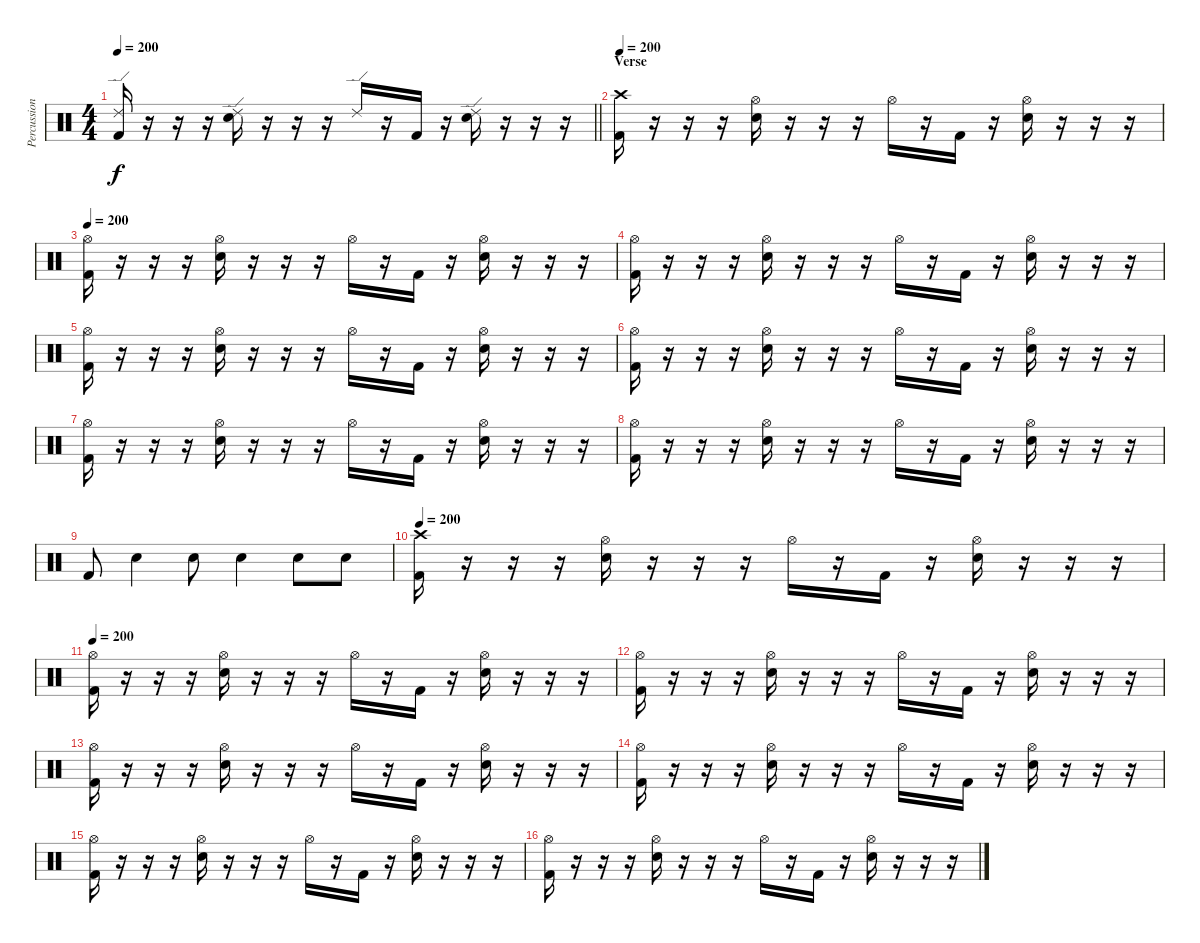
\track ("Percussion" "Percussion") {instrument percussion}
\staff {score}
\articulation defaults
\ts (4 4)
\tempo 200
\clef neutral
\barLineRight lightlight
\ks c
("Ride (edge) 2" "Kick (hit) 2").16{dy f} r.16 r.16 r.16 ("Ride (edge) 2" "Electric Snare (hit)").16 r.16 r.16 r.16 "Ride (edge) 2".16 r.16 "Kick (hit) 2".16 r.16 ("Ride (edge) 2" "Electric Snare (hit)").16 r.16 r.16 r.16 |
\section ("" "Verse")
\tempo 200
("Crash high (hit)" "Kick (hit) 2").16 r.16 r.16 r.16 ("Hi-Hat (open)" "Electric Snare (hit)").16 r.16 r.16 r.16 "Hi-Hat (open)".16 r.16 "Kick (hit) 2".16 r.16 ("Hi-Hat (open)" "Electric Snare (hit)").16 r.16 r.16 r.16 |
\tempo 200
("Hi-Hat (open)" "Kick (hit) 2").16 r.16 r.16 r.16 ("Hi-Hat (open)" "Electric Snare (hit)").16 r.16 r.16 r.16 "Hi-Hat (open)".16 r.16 "Kick (hit) 2".16 r.16 ("Hi-Hat (open)" "Electric Snare (hit)").16 r.16 r.16 r.16 |
("Hi-Hat (open)" "Kick (hit) 2").16 r.16 r.16 r.16 ("Hi-Hat (open)" "Electric Snare (hit)").16 r.16 r.16 r.16 "Hi-Hat (open)".16 r.16 "Kick (hit) 2".16 r.16 ("Hi-Hat (open)" "Electric Snare (hit)").16 r.16 r.16 r.16 |
("Hi-Hat (open)" "Kick (hit) 2").16 r.16 r.16 r.16 ("Hi-Hat (open)" "Electric Snare (hit)").16 r.16 r.16 r.16 "Hi-Hat (open)".16 r.16 "Kick (hit) 2".16 r.16 ("Hi-Hat (open)" "Electric Snare (hit)").16 r.16 r.16 r.16 |
("Hi-Hat (open)" "Kick (hit) 2").16 r.16 r.16 r.16 ("Hi-Hat (open)" "Electric Snare (hit)").16 r.16 r.16 r.16 "Hi-Hat (open)".16 r.16 "Kick (hit) 2".16 r.16 ("Hi-Hat (open)" "Electric Snare (hit)").16 r.16 r.16 r.16 |
("Hi-Hat (open)" "Kick (hit) 2").16 r.16 r.16 r.16 ("Hi-Hat (open)" "Electric Snare (hit)").16 r.16 r.16 r.16 "Hi-Hat (open)".16 r.16 "Kick (hit) 2".16 r.16 ("Hi-Hat (open)" "Electric Snare (hit)").16 r.16 r.16 r.16 |
("Hi-Hat (open)" "Kick (hit) 2").16 r.16 r.16 r.16 ("Hi-Hat (open)" "Electric Snare (hit)").16 r.16 r.16 r.16 "Hi-Hat (open)".16 r.16 "Kick (hit) 2".16 r.16 ("Hi-Hat (open)" "Electric Snare (hit)").16 r.16 r.16 r.16 |
"Kick (hit) 2".8 "Electric Snare (hit)".4 "Electric Snare (hit)".8 "Electric Snare (hit)".4 "Electric Snare (hit)".8 "Electric Snare (hit)".8 |
\tempo 200
("Crash high (hit)" "Kick (hit) 2").16 r.16 r.16 r.16 ("Hi-Hat (open)" "Electric Snare (hit)").16 r.16 r.16 r.16 "Hi-Hat (open)".16 r.16 "Kick (hit) 2".16 r.16 ("Hi-Hat (open)" "Electric Snare (hit)").16 r.16 r.16 r.16 |
\tempo 200
("Hi-Hat (open)" "Kick (hit) 2").16 r.16 r.16 r.16 ("Hi-Hat (open)" "Electric Snare (hit)").16 r.16 r.16 r.16 "Hi-Hat (open)".16 r.16 "Kick (hit) 2".16 r.16 ("Hi-Hat (open)" "Electric Snare (hit)").16 r.16 r.16 r.16 |
("Hi-Hat (open)" "Kick (hit) 2").16 r.16 r.16 r.16 ("Hi-Hat (open)" "Electric Snare (hit)").16 r.16 r.16 r.16 "Hi-Hat (open)".16 r.16 "Kick (hit) 2".16 r.16 ("Hi-Hat (open)" "Electric Snare (hit)").16 r.16 r.16 r.16 |
("Hi-Hat (open)" "Kick (hit) 2").16 r.16 r.16 r.16 ("Hi-Hat (open)" "Electric Snare (hit)").16 r.16 r.16 r.16 "Hi-Hat (open)".16 r.16 "Kick (hit) 2".16 r.16 ("Hi-Hat (open)" "Electric Snare (hit)").16 r.16 r.16 r.16 |
("Hi-Hat (open)" "Kick (hit) 2").16 r.16 r.16 r.16 ("Hi-Hat (open)" "Electric Snare (hit)").16 r.16 r.16 r.16 "Hi-Hat (open)".16 r.16 "Kick (hit) 2".16 r.16 ("Hi-Hat (open)" "Electric Snare (hit)").16 r.16 r.16 r.16 |
("Hi-Hat (open)" "Kick (hit) 2").16 r.16 r.16 r.16 ("Hi-Hat (open)" "Electric Snare (hit)").16 r.16 r.16 r.16 "Hi-Hat (open)".16 r.16 "Kick (hit) 2".16 r.16 ("Hi-Hat (open)" "Electric Snare (hit)").16 r.16 r.16 r.16 |
("Hi-Hat (open)" "Kick (hit) 2").16 r.16 r.16 r.16 ("Hi-Hat (open)" "Electric Snare (hit)").16 r.16 r.16 r.16 "Hi-Hat (open)".16 r.16 "Kick (hit) 2".16 r.16 ("Hi-Hat (open)" "Electric Snare (hit)").16 r.16 r.16 r.16
